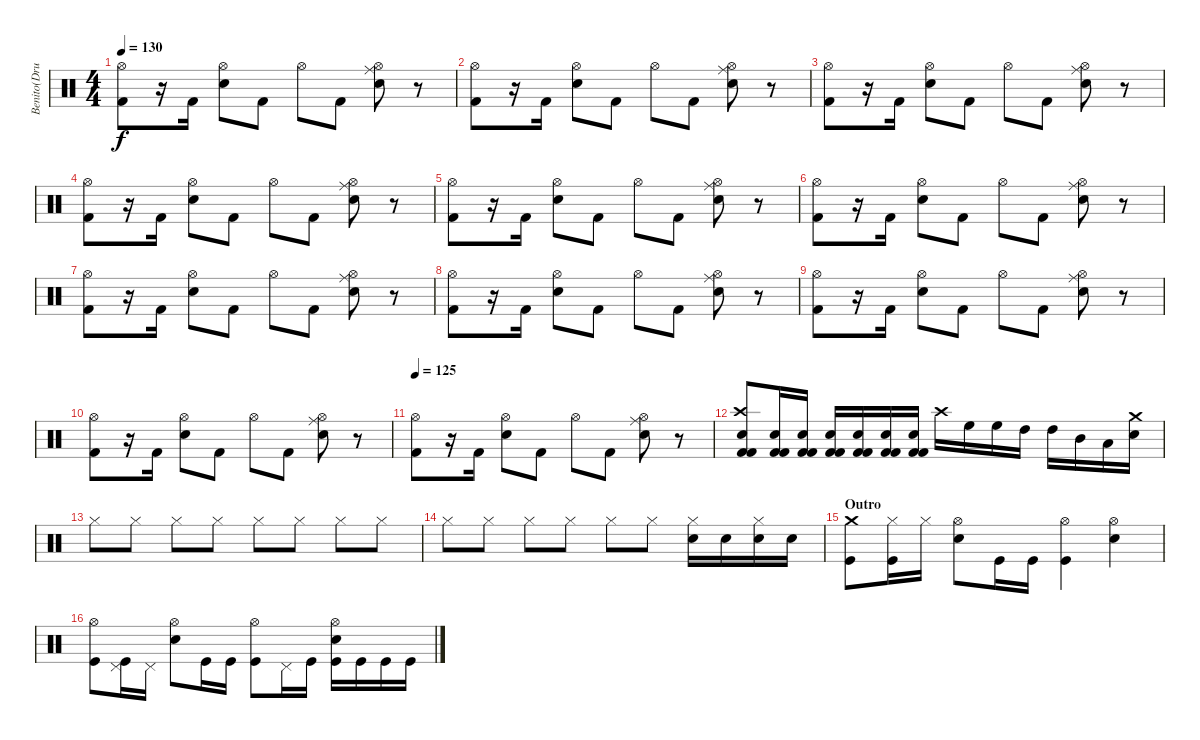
\track ("Benito(Drums)" "Benito(Dru") {instrument percussion}
\staff {score}
\articulation defaults
\ts (4 4)
\tempo 130
\clef neutral
\ks c
("Kick (hit) 2" "Hi-Hat (open)").8{dy f} r.16 "Kick (hit) 2".16 ("Electric Snare (hit)" "Hi-Hat (open)").8 "Kick (hit) 2".8 "Hi-Hat (open)".8 "Kick (hit) 2".8 ("Electric Snare (hit)" "Ride (middle)" "Hi-Hat (open)").8 r.8 |
("Kick (hit) 2" "Hi-Hat (open)").8 r.16 "Kick (hit) 2".16 ("Electric Snare (hit)" "Hi-Hat (open)").8 "Kick (hit) 2".8 "Hi-Hat (open)".8 "Kick (hit) 2".8 ("Electric Snare (hit)" "Ride (middle)" "Hi-Hat (open)").8 r.8 |
("Kick (hit) 2" "Hi-Hat (open)").8 r.16 "Kick (hit) 2".16 ("Electric Snare (hit)" "Hi-Hat (open)").8 "Kick (hit) 2".8 "Hi-Hat (open)".8 "Kick (hit) 2".8 ("Electric Snare (hit)" "Ride (middle)" "Hi-Hat (open)").8 r.8 |
("Kick (hit) 2" "Hi-Hat (open)").8 r.16 "Kick (hit) 2".16 ("Electric Snare (hit)" "Hi-Hat (open)").8 "Kick (hit) 2".8 "Hi-Hat (open)".8 "Kick (hit) 2".8 ("Electric Snare (hit)" "Ride (middle)" "Hi-Hat (open)").8 r.8 |
("Kick (hit) 2" "Hi-Hat (open)").8 r.16 "Kick (hit) 2".16 ("Electric Snare (hit)" "Hi-Hat (open)").8 "Kick (hit) 2".8 "Hi-Hat (open)".8 "Kick (hit) 2".8 ("Electric Snare (hit)" "Ride (middle)" "Hi-Hat (open)").8 r.8 |
("Kick (hit) 2" "Hi-Hat (open)").8 r.16 "Kick (hit) 2".16 ("Electric Snare (hit)" "Hi-Hat (open)").8 "Kick (hit) 2".8 "Hi-Hat (open)".8 "Kick (hit) 2".8 ("Electric Snare (hit)" "Ride (middle)" "Hi-Hat (open)").8 r.8 |
("Kick (hit) 2" "Hi-Hat (open)").8 r.16 "Kick (hit) 2".16 ("Electric Snare (hit)" "Hi-Hat (open)").8 "Kick (hit) 2".8 "Hi-Hat (open)".8 "Kick (hit) 2".8 ("Electric Snare (hit)" "Ride (middle)" "Hi-Hat (open)").8 r.8 |
("Kick (hit) 2" "Hi-Hat (open)").8 r.16 "Kick (hit) 2".16 ("Electric Snare (hit)" "Hi-Hat (open)").8 "Kick (hit) 2".8 "Hi-Hat (open)".8 "Kick (hit) 2".8 ("Electric Snare (hit)" "Ride (middle)" "Hi-Hat (open)").8 r.8 |
("Kick (hit) 2" "Hi-Hat (open)").8 r.16 "Kick (hit) 2".16 ("Electric Snare (hit)" "Hi-Hat (open)").8 "Kick (hit) 2".8 "Hi-Hat (open)".8 "Kick (hit) 2".8 ("Electric Snare (hit)" "Ride (middle)" "Hi-Hat (open)").8 r.8 |
("Kick (hit) 2" "Hi-Hat (open)").8 r.16 "Kick (hit) 2".16 ("Electric Snare (hit)" "Hi-Hat (open)").8 "Kick (hit) 2".8 "Hi-Hat (open)".8 "Kick (hit) 2".8 ("Electric Snare (hit)" "Ride (middle)" "Hi-Hat (open)").8 r.8 |
\tempo 125
("Kick (hit) 2" "Hi-Hat (open)").8 r.16 "Kick (hit) 2".16 ("Electric Snare (hit)" "Hi-Hat (open)").8 "Kick (hit) 2".8 "Hi-Hat (open)".8 "Kick (hit) 2".8 ("Electric Snare (hit)" "Ride (middle)" "Hi-Hat (open)").8 r.8 |
("Kick (hit) 2" "Kick (hit) 2" "Crash high (hit)" "Snare (hit) 2").8 ("Kick (hit) 2" "Kick (hit) 2" "Snare (hit) 2").16 ("Kick (hit) 2" "Kick (hit) 2" "Snare (hit) 2").16 ("Kick (hit) 2" "Kick (hit) 2" "Snare (hit) 2").16 ("Kick (hit) 2" "Kick (hit) 2" "Snare (hit) 2").16 ("Kick (hit) 2" "Kick (hit) 2" "Snare (hit) 2").16 ("Kick (hit) 2" "Kick (hit) 2" "Snare (hit) 2").16 "Crash high (hit)".16 "High Floor Tom (hit)".16 "High Floor Tom (hit)".16 "High Tom (hit)".16 "High Tom (hit)".16 "Mid Tom (hit)".16 "Low Tom (hit)".16 ("Electric Snare (hit)" "Crash medium (hit)").16 |
"Hi-Hat (closed)".8 "Hi-Hat (closed)".8 "Hi-Hat (closed)".8 "Hi-Hat (closed)".8 "Hi-Hat (closed)".8 "Hi-Hat (closed)".8 "Hi-Hat (closed)".8 "Hi-Hat (closed)".8 |
"Hi-Hat (closed)".8 "Hi-Hat (closed)".8 "Hi-Hat (closed)".8 "Hi-Hat (closed)".8 "Hi-Hat (closed)".8 "Hi-Hat (closed)".8 ("Hi-Hat (closed)" "Snare (hit) 2").16 "Snare (hit) 2".16 ("Hi-Hat (closed)" "Snare (hit) 2").16 "Snare (hit) 2".16 |
\section ("" "Outro")
("Crash medium (hit)" "Kick (hit)").8 ("Hi-Hat (closed)" "Kick (hit)").16 "Hi-Hat (closed)".16 ("Hi-Hat (open)" "Electric Snare (hit)").8 "Kick (hit)".16 "Kick (hit)".16 ("Hi-Hat (open)" "Kick (hit)").4 ("Hi-Hat (open)" "Electric Snare (hit)").4 |
("Hi-Hat (open)" "Kick (hit)").8 ("Pedal Hi-Hat (hit)" "Kick (hit)").16 "Pedal Hi-Hat (hit)".16 ("Hi-Hat (open)" "Electric Snare (hit)").8 "Kick (hit)".16 "Kick (hit)".16 ("Hi-Hat (open)" "Kick (hit)").8 "Pedal Hi-Hat (hit)".16 "Kick (hit)".16 ("Hi-Hat (open)" "Electric Snare (hit)" "Kick (hit)").16 "Kick (hit)".16 "Kick (hit)".16 "Kick (hit)".16
